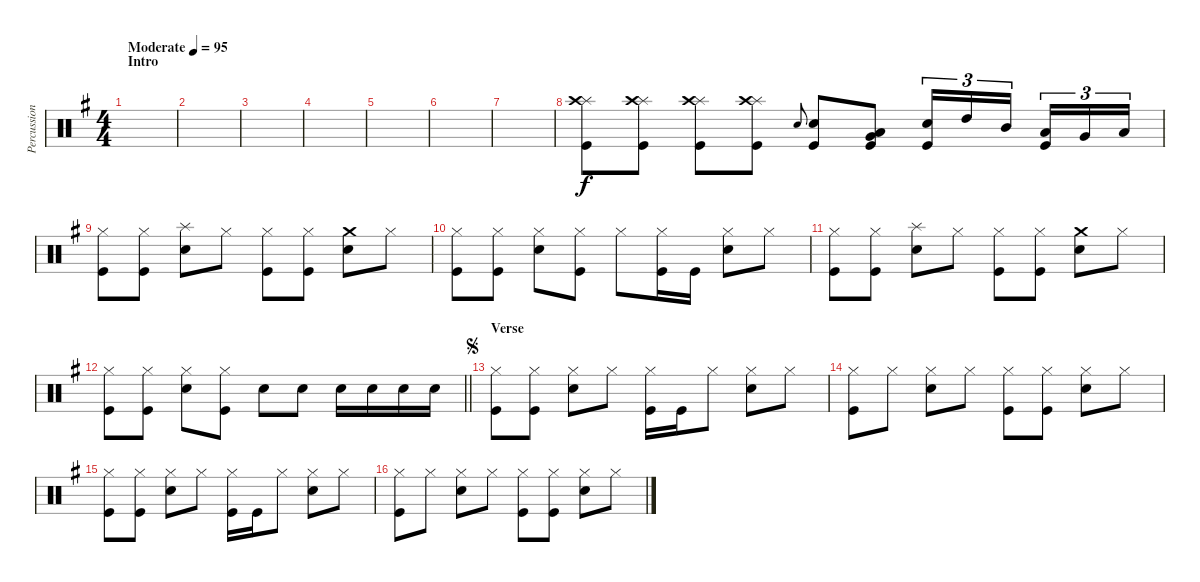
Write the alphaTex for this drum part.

\track ("Percussion" "Percussion") {instrument percussion}
\staff {score}
\articulation defaults
\ts (4 4)
\section ("" "Intro")
\tempo (95 "Moderate")
\clef neutral
\ks eminor
|
|
|
|
|
|
|
("Splash (hit)" "Crash high (hit)" "Kick (hit)").8 ("Splash (hit)" "Crash high (hit)" "Kick (hit)").8 ("Splash (hit)" "Crash high (hit)" "Kick (hit)").8 ("Splash (hit)" "Crash high (hit)" "Kick (hit)").8 "Snare (hit) 2".8{gr onbeat} ("Snare (hit) 2" "Kick (hit)").8 ("Very Low Tom (hit)" "Low Floor Tom (hit)" "Kick (hit)").8 ("Snare (hit) 2" "Kick (hit)").16{tu (3 2)} "High Tom (hit)".16{tu (3 2)} "Mid Tom (hit)".16{tu (3 2) beam splitsecondary} ("Low Tom (hit)" "Kick (hit)").16{tu (3 2)} "Very Low Tom (hit)".16{tu (3 2)} "Low Floor Tom (hit)".16{tu (3 2)} |
("Hi-Hat (closed)" "Kick (hit)").8 ("Hi-Hat (closed)" "Kick (hit)").8 ("Splash (hit)" "Snare (hit) 2").8 "Hi-Hat (closed)".8 ("Hi-Hat (closed)" "Kick (hit)").8 ("Hi-Hat (closed)" "Kick (hit)").8 ("Crash medium (hit)" "Snare (hit) 2").8 "Hi-Hat (closed)".8 |
("Hi-Hat (closed)" "Kick (hit)").8 ("Hi-Hat (closed)" "Kick (hit)").8 ("Hi-Hat (closed)" "Snare (hit) 2").8 ("Hi-Hat (closed)" "Kick (hit)").8 "Hi-Hat (closed)".8 ("Hi-Hat (closed)" "Kick (hit)").16 "Kick (hit)".16 ("Hi-Hat (closed)" "Snare (hit) 2").8 "Hi-Hat (closed)".8 |
("Hi-Hat (closed)" "Kick (hit)").8 ("Hi-Hat (closed)" "Kick (hit)").8 ("Splash (hit)" "Snare (hit) 2").8 "Hi-Hat (closed)".8 ("Hi-Hat (closed)" "Kick (hit)").8 ("Hi-Hat (closed)" "Kick (hit)").8 ("Crash medium (hit)" "Snare (hit) 2").8 "Hi-Hat (closed)".8 |
\barLineRight lightlight
("Hi-Hat (closed)" "Kick (hit)").8 ("Hi-Hat (closed)" "Kick (hit)").8 ("Hi-Hat (closed)" "Snare (hit) 2").8 ("Hi-Hat (closed)" "Kick (hit)").8 "Snare (hit) 2".8 "Snare (hit) 2".8 "Snare (hit) 2".16 "Snare (hit) 2".16 "Snare (hit) 2".16 "Snare (hit) 2".16 |
\section ("" "Verse")
\jump segno
("Hi-Hat (closed)" "Kick (hit)").8 ("Hi-Hat (closed)" "Kick (hit)").8 ("Hi-Hat (closed)" "Snare (hit) 2").8 "Hi-Hat (closed)".8 ("Hi-Hat (closed)" "Kick (hit)").16 "Kick (hit)".16 "Hi-Hat (closed)".8 ("Hi-Hat (closed)" "Snare (hit) 2").8 "Hi-Hat (closed)".8 |
("Hi-Hat (closed)" "Kick (hit)").8 "Hi-Hat (closed)".8 ("Hi-Hat (closed)" "Snare (hit) 2").8 "Hi-Hat (closed)".8 ("Hi-Hat (closed)" "Kick (hit)").8 ("Hi-Hat (closed)" "Kick (hit)").8 ("Hi-Hat (closed)" "Snare (hit) 2").8 "Hi-Hat (closed)".8 |
("Hi-Hat (closed)" "Kick (hit)").8 ("Hi-Hat (closed)" "Kick (hit)").8 ("Hi-Hat (closed)" "Snare (hit) 2").8 "Hi-Hat (closed)".8 ("Hi-Hat (closed)" "Kick (hit)").16 "Kick (hit)".16 "Hi-Hat (closed)".8 ("Hi-Hat (closed)" "Snare (hit) 2").8 "Hi-Hat (closed)".8 |
("Hi-Hat (closed)" "Kick (hit)").8 "Hi-Hat (closed)".8 ("Hi-Hat (closed)" "Snare (hit) 2").8 "Hi-Hat (closed)".8 ("Hi-Hat (closed)" "Kick (hit)").8 ("Hi-Hat (closed)" "Kick (hit)").8 ("Hi-Hat (closed)" "Snare (hit) 2").8 "Hi-Hat (closed)".8
